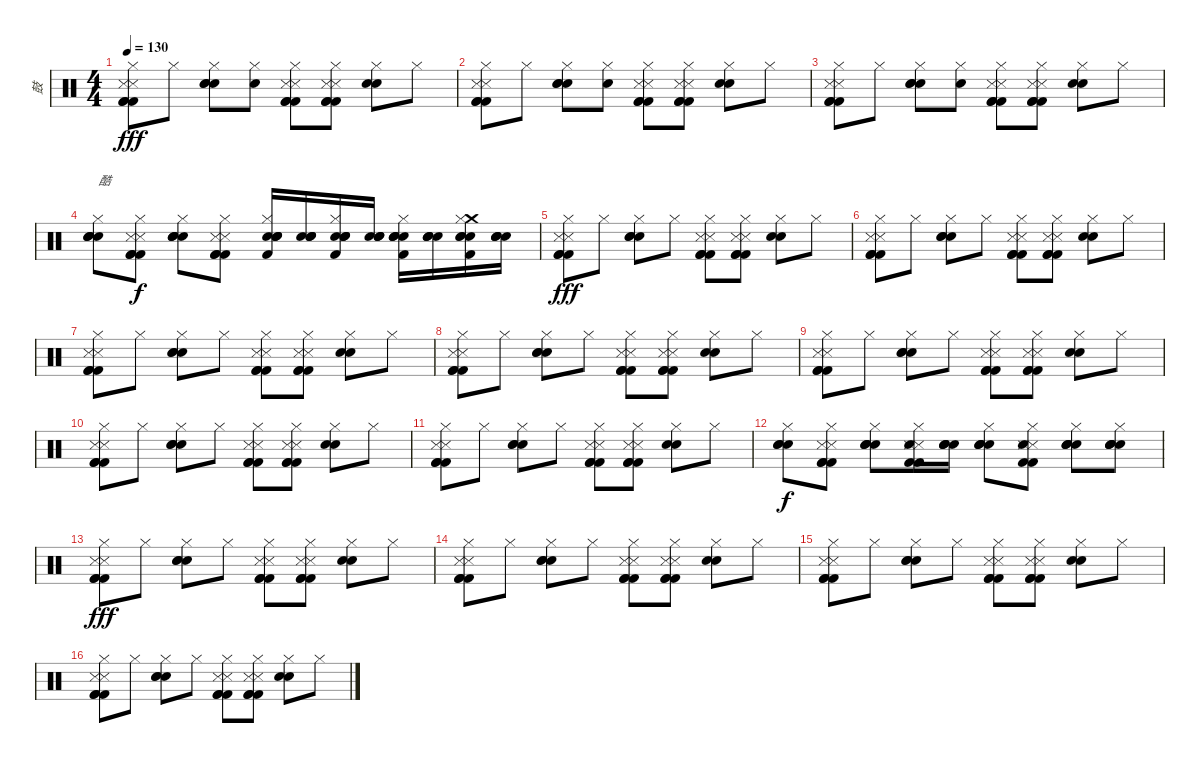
\track ("鼓" "鼓") {instrument percussion}
\staff {score}
\articulation defaults
\ts (4 4)
\tempo 130
\clef neutral
\ks c
("Metronome (hit)" "Metronome (hit)" "Kick (hit) 2" "Kick (hit) 2" "Kick (hit) 2" "Hi-Hat (closed)").8{dy fff} "Hi-Hat (closed)".8 ("Electric Snare (hit)" "Electric Snare (hit)" "Electric Snare (hit)" "Hi-Hat (closed)").8 ("Hand Clap (hit)" "Hi-Hat (closed)").8 ("Metronome (hit)" "Metronome (hit)" "Kick (hit) 2" "Kick (hit) 2" "Kick (hit) 2" "Hi-Hat (closed)").8 ("Metronome (hit)" "Metronome (hit)" "Kick (hit) 2" "Kick (hit) 2" "Kick (hit) 2" "Hi-Hat (closed)").8 ("Electric Snare (hit)" "Electric Snare (hit)" "Hi-Hat (closed)").8 "Hi-Hat (closed)".8 |
("Metronome (hit)" "Metronome (hit)" "Kick (hit) 2" "Kick (hit) 2" "Kick (hit) 2" "Hi-Hat (closed)").8 "Hi-Hat (closed)".8 ("Electric Snare (hit)" "Electric Snare (hit)" "Electric Snare (hit)" "Hi-Hat (closed)").8 ("Hand Clap (hit)" "Hi-Hat (closed)").8 ("Metronome (hit)" "Metronome (hit)" "Kick (hit) 2" "Kick (hit) 2" "Kick (hit) 2" "Hi-Hat (closed)").8 ("Metronome (hit)" "Metronome (hit)" "Kick (hit) 2" "Kick (hit) 2" "Kick (hit) 2" "Hi-Hat (closed)").8 ("Electric Snare (hit)" "Electric Snare (hit)" "Hi-Hat (closed)").8 "Hi-Hat (closed)".8 |
("Metronome (hit)" "Metronome (hit)" "Kick (hit) 2" "Kick (hit) 2" "Kick (hit) 2" "Hi-Hat (closed)").8 "Hi-Hat (closed)".8 ("Electric Snare (hit)" "Electric Snare (hit)" "Electric Snare (hit)" "Hi-Hat (closed)").8 ("Hand Clap (hit)" "Hi-Hat (closed)").8 ("Metronome (hit)" "Metronome (hit)" "Kick (hit) 2" "Kick (hit) 2" "Kick (hit) 2" "Hi-Hat (closed)").8 ("Metronome (hit)" "Metronome (hit)" "Kick (hit) 2" "Kick (hit) 2" "Kick (hit) 2" "Hi-Hat (closed)").8 ("Electric Snare (hit)" "Electric Snare (hit)" "Hi-Hat (closed)").8 "Hi-Hat (closed)".8 |
("Hand Clap (hit)" "Snare (hit) 2" "Snare (hit) 2" "Snare (hit) 2" "Hi-Hat (closed)").8{txt "酷"} ("Metronome (hit)" "Metronome (hit)" "Kick (hit) 2" "Kick (hit) 2" "Kick (hit) 2" "Hi-Hat (closed)").8{dy f} ("Hand Clap (hit)" "Snare (hit) 2" "Snare (hit) 2" "Snare (hit) 2" "Hi-Hat (closed)").8 ("Metronome (hit)" "Metronome (hit)" "Kick (hit) 2" "Kick (hit) 2" "Kick (hit) 2" "Hi-Hat (closed)").8 ("Hand Clap (hit)" "Snare (hit) 2" "Snare (hit) 2" "Snare (hit) 2" "Kick (hit) 2" "Hi-Hat (closed)").16{volume 7} ("Hand Clap (hit)" "Snare (hit) 2" "Snare (hit) 2" "Snare (hit) 2").16{volume 8} ("Hand Clap (hit)" "Snare (hit) 2" "Snare (hit) 2" "Snare (hit) 2" "Kick (hit) 2" "Hi-Hat (closed)").16{volume 9} ("Hand Clap (hit)" "Snare (hit) 2" "Snare (hit) 2" "Snare (hit) 2").16{volume 10} ("Hand Clap (hit)" "Snare (hit) 2" "Snare (hit) 2" "Snare (hit) 2" "Kick (hit) 2" "Hi-Hat (closed)").16{volume 11} ("Hand Clap (hit)" "Snare (hit) 2" "Snare (hit) 2" "Snare (hit) 2").16{volume 12} ("Hand Clap (hit)" "Snare (hit) 2" "Snare (hit) 2" "Crash medium (hit)" "Kick (hit) 2" "Hi-Hat (closed)").16{volume 13} ("Hand Clap (hit)" "Snare (hit) 2" "Snare (hit) 2" "Snare (hit) 2").16{volume 14} |
("Metronome (hit)" "Metronome (hit)" "Kick (hit) 2" "Kick (hit) 2" "Kick (hit) 2" "Hi-Hat (closed)").8{dy fff} "Hi-Hat (closed)".8{volume 11} ("Electric Snare (hit)" "Electric Snare (hit)" "Electric Snare (hit)" "Hi-Hat (closed)").8 "Hi-Hat (closed)".8 ("Metronome (hit)" "Metronome (hit)" "Kick (hit) 2" "Kick (hit) 2" "Kick (hit) 2" "Hi-Hat (closed)").8 ("Metronome (hit)" "Metronome (hit)" "Kick (hit) 2" "Kick (hit) 2" "Kick (hit) 2" "Hi-Hat (closed)").8 ("Electric Snare (hit)" "Electric Snare (hit)" "Hi-Hat (closed)").8 "Hi-Hat (closed)".8 |
("Metronome (hit)" "Metronome (hit)" "Kick (hit) 2" "Kick (hit) 2" "Kick (hit) 2" "Hi-Hat (closed)").8 "Hi-Hat (closed)".8 ("Electric Snare (hit)" "Electric Snare (hit)" "Electric Snare (hit)" "Hi-Hat (closed)").8 "Hi-Hat (closed)".8 ("Metronome (hit)" "Metronome (hit)" "Kick (hit) 2" "Kick (hit) 2" "Kick (hit) 2" "Hi-Hat (closed)").8 ("Metronome (hit)" "Metronome (hit)" "Kick (hit) 2" "Kick (hit) 2" "Kick (hit) 2" "Hi-Hat (closed)").8 ("Electric Snare (hit)" "Electric Snare (hit)" "Hi-Hat (closed)").8 "Hi-Hat (closed)".8 |
("Metronome (hit)" "Metronome (hit)" "Kick (hit) 2" "Kick (hit) 2" "Kick (hit) 2" "Hi-Hat (closed)").8 "Hi-Hat (closed)".8 ("Electric Snare (hit)" "Electric Snare (hit)" "Electric Snare (hit)" "Hi-Hat (closed)").8 "Hi-Hat (closed)".8 ("Metronome (hit)" "Metronome (hit)" "Kick (hit) 2" "Kick (hit) 2" "Kick (hit) 2" "Hi-Hat (closed)").8 ("Metronome (hit)" "Metronome (hit)" "Kick (hit) 2" "Kick (hit) 2" "Kick (hit) 2" "Hi-Hat (closed)").8 ("Electric Snare (hit)" "Electric Snare (hit)" "Hi-Hat (closed)").8 "Hi-Hat (closed)".8 |
("Metronome (hit)" "Metronome (hit)" "Kick (hit) 2" "Kick (hit) 2" "Kick (hit) 2" "Hi-Hat (closed)").8 "Hi-Hat (closed)".8 ("Electric Snare (hit)" "Electric Snare (hit)" "Electric Snare (hit)" "Hi-Hat (closed)").8 "Hi-Hat (closed)".8 ("Metronome (hit)" "Metronome (hit)" "Kick (hit) 2" "Kick (hit) 2" "Kick (hit) 2" "Hi-Hat (closed)").8 ("Metronome (hit)" "Metronome (hit)" "Kick (hit) 2" "Kick (hit) 2" "Kick (hit) 2" "Hi-Hat (closed)").8 ("Electric Snare (hit)" "Electric Snare (hit)" "Hi-Hat (closed)").8 "Hi-Hat (closed)".8 |
("Metronome (hit)" "Metronome (hit)" "Kick (hit) 2" "Kick (hit) 2" "Kick (hit) 2" "Hi-Hat (closed)").8 "Hi-Hat (closed)".8 ("Electric Snare (hit)" "Electric Snare (hit)" "Electric Snare (hit)" "Hi-Hat (closed)").8 "Hi-Hat (closed)".8 ("Metronome (hit)" "Metronome (hit)" "Kick (hit) 2" "Kick (hit) 2" "Kick (hit) 2" "Hi-Hat (closed)").8 ("Metronome (hit)" "Metronome (hit)" "Kick (hit) 2" "Kick (hit) 2" "Kick (hit) 2" "Hi-Hat (closed)").8 ("Electric Snare (hit)" "Electric Snare (hit)" "Hi-Hat (closed)").8 "Hi-Hat (closed)".8 |
("Metronome (hit)" "Metronome (hit)" "Kick (hit) 2" "Kick (hit) 2" "Kick (hit) 2" "Hi-Hat (closed)").8 "Hi-Hat (closed)".8 ("Electric Snare (hit)" "Electric Snare (hit)" "Electric Snare (hit)" "Hi-Hat (closed)").8 "Hi-Hat (closed)".8 ("Metronome (hit)" "Metronome (hit)" "Kick (hit) 2" "Kick (hit) 2" "Kick (hit) 2" "Hi-Hat (closed)").8 ("Metronome (hit)" "Metronome (hit)" "Kick (hit) 2" "Kick (hit) 2" "Kick (hit) 2" "Hi-Hat (closed)").8 ("Electric Snare (hit)" "Electric Snare (hit)" "Hi-Hat (closed)").8 "Hi-Hat (closed)".8 |
("Metronome (hit)" "Metronome (hit)" "Kick (hit) 2" "Kick (hit) 2" "Kick (hit) 2" "Hi-Hat (closed)").8 "Hi-Hat (closed)".8 ("Electric Snare (hit)" "Electric Snare (hit)" "Electric Snare (hit)" "Hi-Hat (closed)").8 "Hi-Hat (closed)".8 ("Metronome (hit)" "Metronome (hit)" "Kick (hit) 2" "Kick (hit) 2" "Kick (hit) 2" "Hi-Hat (closed)").8 ("Metronome (hit)" "Metronome (hit)" "Kick (hit) 2" "Kick (hit) 2" "Kick (hit) 2" "Hi-Hat (closed)").8 ("Electric Snare (hit)" "Electric Snare (hit)" "Hi-Hat (closed)").8 "Hi-Hat (closed)".8 |
("Electric Snare (hit)" "Electric Snare (hit)" "Electric Snare (hit)" "Hi-Hat (closed)").8{dy f} ("Metronome (hit)" "Metronome (hit)" "Kick (hit) 2" "Kick (hit) 2" "Kick (hit) 2" "Hi-Hat (closed)").8 ("Electric Snare (hit)" "Electric Snare (hit)" "Electric Snare (hit)" "Hand Clap (hit)" "Hi-Hat (closed)").8 ("Metronome (hit)" "Metronome (hit)" "Kick (hit) 2" "Kick (hit) 2" "Hand Clap (hit)" "Hi-Hat (closed)").16 ("Electric Snare (hit)" "Electric Snare (hit)" "Electric Snare (hit)" "Hand Clap (hit)").16 ("Electric Snare (hit)" "Electric Snare (hit)" "Electric Snare (hit)" "Hand Clap (hit)" "Hi-Hat (closed)").8 ("Metronome (hit)" "Metronome (hit)" "Kick (hit) 2" "Kick (hit) 2" "Hand Clap (hit)" "Hi-Hat (closed)").8 ("Electric Snare (hit)" "Electric Snare (hit)" "Electric Snare (hit)" "Hand Clap (hit)" "Hi-Hat (closed)").8 ("Electric Snare (hit)" "Electric Snare (hit)" "Electric Snare (hit)" "Hand Clap (hit)" "Hi-Hat (closed)").8 |
("Metronome (hit)" "Metronome (hit)" "Kick (hit) 2" "Kick (hit) 2" "Kick (hit) 2" "Hi-Hat (closed)").8{dy fff} "Hi-Hat (closed)".8 ("Electric Snare (hit)" "Electric Snare (hit)" "Electric Snare (hit)" "Hi-Hat (closed)").8 "Hi-Hat (closed)".8 ("Metronome (hit)" "Metronome (hit)" "Kick (hit) 2" "Kick (hit) 2" "Kick (hit) 2" "Hi-Hat (closed)").8 ("Metronome (hit)" "Metronome (hit)" "Kick (hit) 2" "Kick (hit) 2" "Kick (hit) 2" "Hi-Hat (closed)").8 ("Electric Snare (hit)" "Electric Snare (hit)" "Hi-Hat (closed)").8 "Hi-Hat (closed)".8 |
("Metronome (hit)" "Metronome (hit)" "Kick (hit) 2" "Kick (hit) 2" "Kick (hit) 2" "Hi-Hat (closed)").8 "Hi-Hat (closed)".8 ("Electric Snare (hit)" "Electric Snare (hit)" "Electric Snare (hit)" "Hi-Hat (closed)").8 "Hi-Hat (closed)".8 ("Metronome (hit)" "Metronome (hit)" "Kick (hit) 2" "Kick (hit) 2" "Kick (hit) 2" "Hi-Hat (closed)").8 ("Metronome (hit)" "Metronome (hit)" "Kick (hit) 2" "Kick (hit) 2" "Kick (hit) 2" "Hi-Hat (closed)").8 ("Electric Snare (hit)" "Electric Snare (hit)" "Hi-Hat (closed)").8 "Hi-Hat (closed)".8 |
("Metronome (hit)" "Metronome (hit)" "Kick (hit) 2" "Kick (hit) 2" "Kick (hit) 2" "Hi-Hat (closed)").8 "Hi-Hat (closed)".8 ("Electric Snare (hit)" "Electric Snare (hit)" "Electric Snare (hit)" "Hi-Hat (closed)").8 "Hi-Hat (closed)".8 ("Metronome (hit)" "Metronome (hit)" "Kick (hit) 2" "Kick (hit) 2" "Kick (hit) 2" "Hi-Hat (closed)").8 ("Metronome (hit)" "Metronome (hit)" "Kick (hit) 2" "Kick (hit) 2" "Kick (hit) 2" "Hi-Hat (closed)").8 ("Electric Snare (hit)" "Electric Snare (hit)" "Hi-Hat (closed)").8 "Hi-Hat (closed)".8 |
("Metronome (hit)" "Metronome (hit)" "Kick (hit) 2" "Kick (hit) 2" "Kick (hit) 2" "Hi-Hat (closed)").8 "Hi-Hat (closed)".8 ("Electric Snare (hit)" "Electric Snare (hit)" "Electric Snare (hit)" "Hi-Hat (closed)").8 "Hi-Hat (closed)".8 ("Metronome (hit)" "Metronome (hit)" "Kick (hit) 2" "Kick (hit) 2" "Kick (hit) 2" "Hi-Hat (closed)").8 ("Metronome (hit)" "Metronome (hit)" "Kick (hit) 2" "Kick (hit) 2" "Kick (hit) 2" "Hi-Hat (closed)").8 ("Electric Snare (hit)" "Electric Snare (hit)" "Hi-Hat (closed)").8 "Hi-Hat (closed)".8
